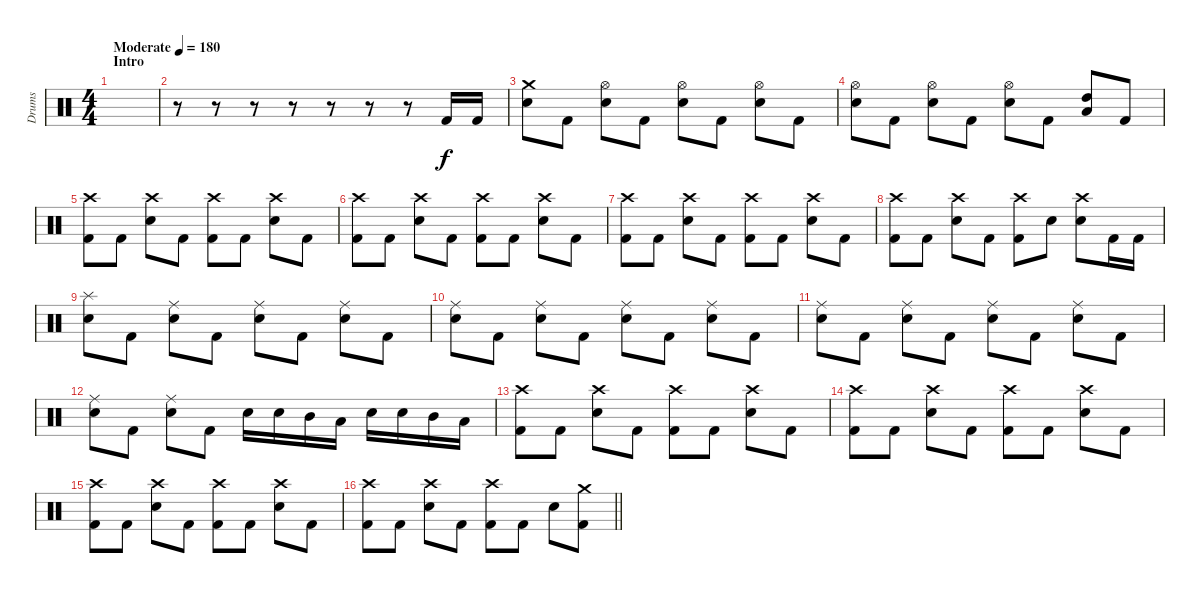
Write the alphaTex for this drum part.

\track ("Drums" "Drums") {instrument percussion}
\staff {score}
\articulation defaults
\ts (4 4)
\section ("" "Intro")
\tempo (180 "Moderate")
\clef neutral
\ks c
|
r.8 r.8 r.8 r.8 r.8 r.8 r.8 "Kick (hit) 2".16 "Kick (hit) 2".16 |
("Crash medium (hit)" "Electric Snare (hit)").8 "Kick (hit) 2".8 ("Hi-Hat (open)" "Electric Snare (hit)").8 "Kick (hit) 2".8 ("Hi-Hat (open)" "Electric Snare (hit)").8 "Kick (hit) 2".8 ("Hi-Hat (open)" "Electric Snare (hit)").8 "Kick (hit) 2".8 |
("Hi-Hat (open)" "Electric Snare (hit)").8 "Kick (hit) 2".8 ("Hi-Hat (open)" "Electric Snare (hit)").8 "Kick (hit) 2".8 ("Hi-Hat (open)" "Electric Snare (hit)").8 "Kick (hit) 2".8 ("Low Tom (hit)" "High Tom (hit)").8 "Kick (hit) 2".8 |
("Kick (hit) 2" "Crash high (hit)").8 "Kick (hit) 2".8 ("Electric Snare (hit)" "Crash high (hit)").8 "Kick (hit) 2".8 ("Kick (hit) 2" "Crash high (hit)").8 "Kick (hit) 2".8 ("Electric Snare (hit)" "Crash high (hit)").8 "Kick (hit) 2".8 |
("Kick (hit) 2" "Crash high (hit)").8 "Kick (hit) 2".8 ("Electric Snare (hit)" "Crash high (hit)").8 "Kick (hit) 2".8 ("Kick (hit) 2" "Crash high (hit)").8 "Kick (hit) 2".8 ("Electric Snare (hit)" "Crash high (hit)").8 "Kick (hit) 2".8 |
("Kick (hit) 2" "Crash high (hit)").8 "Kick (hit) 2".8 ("Electric Snare (hit)" "Crash high (hit)").8 "Kick (hit) 2".8 ("Kick (hit) 2" "Crash high (hit)").8 "Kick (hit) 2".8 ("Electric Snare (hit)" "Crash high (hit)").8 "Kick (hit) 2".8 |
("Kick (hit) 2" "Crash high (hit)").8 "Kick (hit) 2".8 ("Electric Snare (hit)" "Crash high (hit)").8 "Kick (hit) 2".8 ("Kick (hit) 2" "Crash high (hit)").8 "Electric Snare (hit)".8 ("Electric Snare (hit)" "Crash high (hit)").8 "Kick (hit) 2".16 "Kick (hit) 2".16 |
("Splash (hit)" "Electric Snare (hit)").8 "Kick (hit) 2".8 ("Ride (middle)" "Electric Snare (hit)").8 "Kick (hit) 2".8 ("Ride (middle)" "Electric Snare (hit)").8 "Kick (hit) 2".8 ("Ride (middle)" "Electric Snare (hit)").8 "Kick (hit) 2".8 |
("Ride (middle)" "Electric Snare (hit)").8 "Kick (hit) 2".8 ("Ride (middle)" "Electric Snare (hit)").8 "Kick (hit) 2".8 ("Ride (middle)" "Electric Snare (hit)").8 "Kick (hit) 2".8 ("Ride (middle)" "Electric Snare (hit)").8 "Kick (hit) 2".8 |
("Ride (middle)" "Electric Snare (hit)").8 "Kick (hit) 2".8 ("Ride (middle)" "Electric Snare (hit)").8 "Kick (hit) 2".8 ("Ride (middle)" "Electric Snare (hit)").8 "Kick (hit) 2".8 ("Ride (middle)" "Electric Snare (hit)").8 "Kick (hit) 2".8 |
("Ride (middle)" "Electric Snare (hit)").8 "Kick (hit) 2".8 ("Ride (middle)" "Electric Snare (hit)").8 "Kick (hit) 2".8 "Electric Snare (hit)".16 "Electric Snare (hit)".16 "Mid Tom (hit)".16 "Low Tom (hit)".16 "Electric Snare (hit)".16 "Electric Snare (hit)".16 "Mid Tom (hit)".16 "Low Tom (hit)".16 |
("Kick (hit) 2" "Crash high (hit)").8 "Kick (hit) 2".8 ("Electric Snare (hit)" "Crash high (hit)").8 "Kick (hit) 2".8 ("Kick (hit) 2" "Crash high (hit)").8 "Kick (hit) 2".8 ("Electric Snare (hit)" "Crash high (hit)").8 "Kick (hit) 2".8 |
("Kick (hit) 2" "Crash high (hit)").8 "Kick (hit) 2".8 ("Electric Snare (hit)" "Crash high (hit)").8 "Kick (hit) 2".8 ("Kick (hit) 2" "Crash high (hit)").8 "Kick (hit) 2".8 ("Electric Snare (hit)" "Crash high (hit)").8 "Kick (hit) 2".8 |
("Kick (hit) 2" "Crash high (hit)").8 "Kick (hit) 2".8 ("Electric Snare (hit)" "Crash high (hit)").8 "Kick (hit) 2".8 ("Kick (hit) 2" "Crash high (hit)").8 "Kick (hit) 2".8 ("Electric Snare (hit)" "Crash high (hit)").8 "Kick (hit) 2".8 |
\barLineRight lightlight
("Kick (hit) 2" "Crash high (hit)").8 "Kick (hit) 2".8 ("Electric Snare (hit)" "Crash high (hit)").8 "Kick (hit) 2".8 ("Kick (hit) 2" "Crash high (hit)").8 "Kick (hit) 2".8 "Electric Snare (hit)".8 ("Kick (hit) 2" "Crash medium (hit)").8
